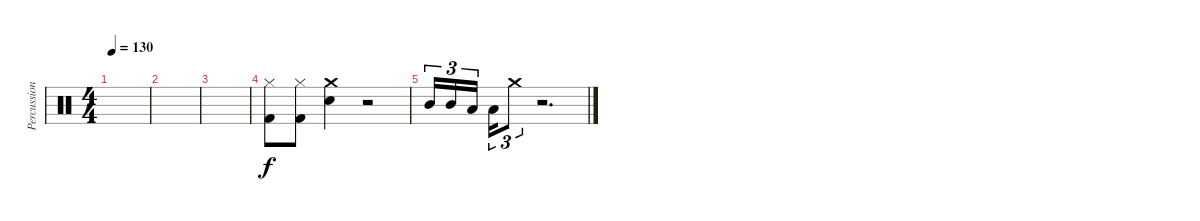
\track ("Percussion" "Percussion") {instrument percussion}
\staff {score}
\articulation defaults
\ts (4 4)
\tempo 130
\clef neutral
\ks c
|
|
|
("Hi-Hat (closed)" "Kick (hit) 2").8 ("Hi-Hat (closed)" "Kick (hit) 2").8 ("Crash medium (hit)" "Snare (hit) 2").4 r.2 |
"Mid Tom (hit)".16{tu (3 2)} "Mid Tom (hit)".16{tu (3 2)} "Low Tom (hit)".16{tu (3 2) beam splitsecondary} "Low Tom (hit)".16{tu (3 2)} "Crash medium (hit)".8{tu (3 2)} r.2{d}
